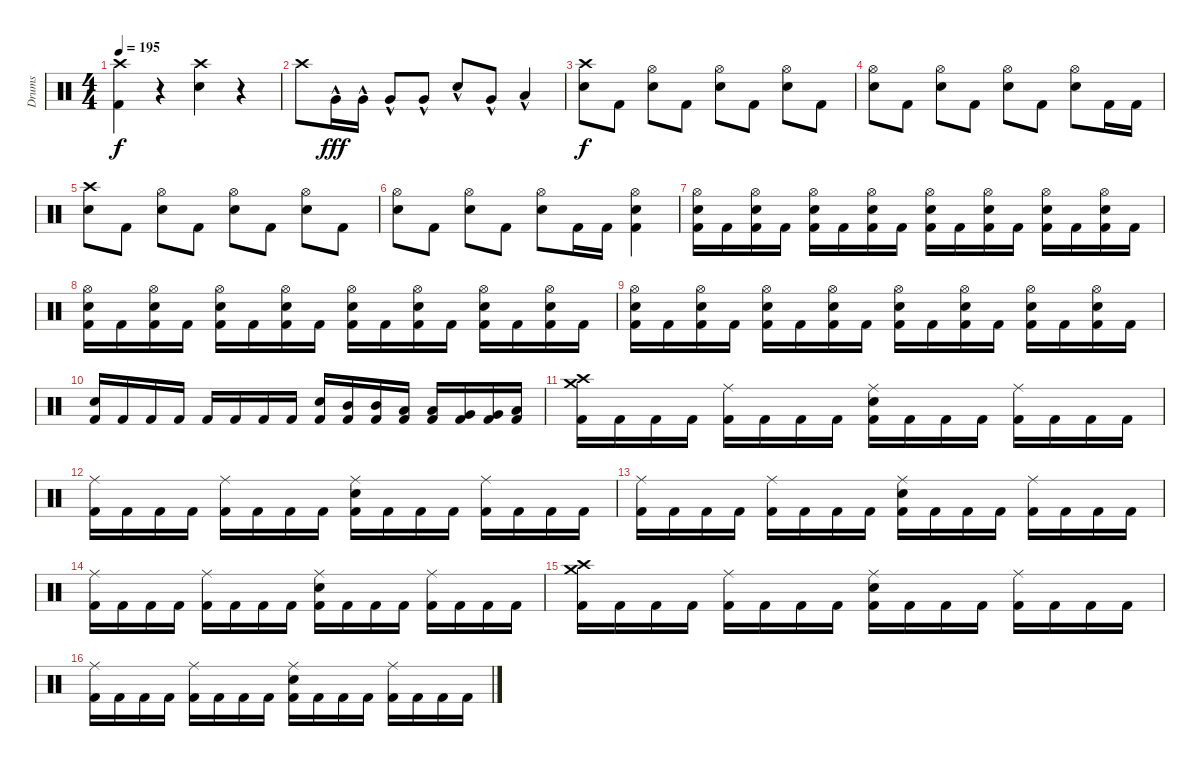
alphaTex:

\track ("Drums" "Drums") {instrument percussion}
\staff {score}
\articulation defaults
\ts (4 4)
\tempo 195
\clef neutral
\ks c
("Crash high (hit)" "Kick (hit) 2").4{dy f} r.4 ("Crash high (hit)" "Electric Snare (hit)").4 r.4 |
"Crash high (hit)".8 "Very Low Tom (hit)"{hac}.16{dy fff} "Very Low Tom (hit)"{hac}.16 "Very Low Tom (hit)"{hac}.8 "Very Low Tom (hit)"{hac}.8 "Electric Snare (hit)"{hac}.8 "Very Low Tom (hit)"{hac}.8 "Low Floor Tom (hit)"{hac}.4 |
("Crash high (hit)" "Electric Snare (hit)").8{dy f} "Kick (hit) 2".8 ("Hi-Hat (open)" "Electric Snare (hit)").8 "Kick (hit) 2".8 ("Hi-Hat (open)" "Electric Snare (hit)").8 "Kick (hit) 2".8 ("Hi-Hat (open)" "Electric Snare (hit)").8 "Kick (hit) 2".8 |
("Hi-Hat (open)" "Electric Snare (hit)").8 "Kick (hit) 2".8 ("Hi-Hat (open)" "Electric Snare (hit)").8 "Kick (hit) 2".8 ("Hi-Hat (open)" "Electric Snare (hit)").8 "Kick (hit) 2".8 ("Hi-Hat (open)" "Electric Snare (hit)").8 "Kick (hit) 2".16 "Kick (hit) 2".16 |
("Crash high (hit)" "Electric Snare (hit)").8 "Kick (hit) 2".8 ("Hi-Hat (open)" "Electric Snare (hit)").8 "Kick (hit) 2".8 ("Hi-Hat (open)" "Electric Snare (hit)").8 "Kick (hit) 2".8 ("Hi-Hat (open)" "Electric Snare (hit)").8 "Kick (hit) 2".8 |
("Hi-Hat (open)" "Electric Snare (hit)").8 "Kick (hit) 2".8 ("Hi-Hat (open)" "Electric Snare (hit)").8 "Kick (hit) 2".8 ("Hi-Hat (open)" "Electric Snare (hit)").8 "Kick (hit) 2".16 "Kick (hit) 2".16 ("Hi-Hat (open)" "Electric Snare (hit)" "Kick (hit) 2").4 |
("Hi-Hat (open)" "Kick (hit) 2" "Electric Snare (hit)").16 "Kick (hit) 2".16 ("Hi-Hat (open)" "Kick (hit) 2" "Electric Snare (hit)").16 "Kick (hit) 2".16 ("Hi-Hat (open)" "Kick (hit) 2" "Electric Snare (hit)").16 "Kick (hit) 2".16 ("Hi-Hat (open)" "Kick (hit) 2" "Electric Snare (hit)").16 "Kick (hit) 2".16 ("Hi-Hat (open)" "Kick (hit) 2" "Electric Snare (hit)").16 "Kick (hit) 2".16 ("Hi-Hat (open)" "Kick (hit) 2" "Electric Snare (hit)").16 "Kick (hit) 2".16 ("Hi-Hat (open)" "Kick (hit) 2" "Electric Snare (hit)").16 "Kick (hit) 2".16 ("Hi-Hat (open)" "Kick (hit) 2" "Electric Snare (hit)").16 "Kick (hit) 2".16 |
("Hi-Hat (open)" "Kick (hit) 2" "Electric Snare (hit)").16 "Kick (hit) 2".16 ("Hi-Hat (open)" "Kick (hit) 2" "Electric Snare (hit)").16 "Kick (hit) 2".16 ("Hi-Hat (open)" "Kick (hit) 2" "Electric Snare (hit)").16 "Kick (hit) 2".16 ("Hi-Hat (open)" "Kick (hit) 2" "Electric Snare (hit)").16 "Kick (hit) 2".16 ("Hi-Hat (open)" "Kick (hit) 2" "Electric Snare (hit)").16 "Kick (hit) 2".16 ("Hi-Hat (open)" "Kick (hit) 2" "Electric Snare (hit)").16 "Kick (hit) 2".16 ("Hi-Hat (open)" "Kick (hit) 2" "Electric Snare (hit)").16 "Kick (hit) 2".16 ("Hi-Hat (open)" "Kick (hit) 2" "Electric Snare (hit)").16 "Kick (hit) 2".16 |
("Hi-Hat (open)" "Kick (hit) 2" "Electric Snare (hit)").16 "Kick (hit) 2".16 ("Hi-Hat (open)" "Kick (hit) 2" "Electric Snare (hit)").16 "Kick (hit) 2".16 ("Hi-Hat (open)" "Kick (hit) 2" "Electric Snare (hit)").16 "Kick (hit) 2".16 ("Hi-Hat (open)" "Kick (hit) 2" "Electric Snare (hit)").16 "Kick (hit) 2".16 ("Hi-Hat (open)" "Kick (hit) 2" "Electric Snare (hit)").16 "Kick (hit) 2".16 ("Hi-Hat (open)" "Kick (hit) 2" "Electric Snare (hit)").16 "Kick (hit) 2".16 ("Hi-Hat (open)" "Kick (hit) 2" "Electric Snare (hit)").16 "Kick (hit) 2".16 ("Hi-Hat (open)" "Kick (hit) 2" "Electric Snare (hit)").16 "Kick (hit) 2".16 |
("Electric Snare (hit)" "Kick (hit) 2").16 "Kick (hit) 2".16 "Kick (hit) 2".16 "Kick (hit) 2".16 "Kick (hit) 2".16 "Kick (hit) 2".16 "Kick (hit) 2".16 "Kick (hit) 2".16 ("Electric Snare (hit)" "Kick (hit) 2").16 ("Mid Tom (hit)" "Kick (hit) 2").16 ("Mid Tom (hit)" "Kick (hit) 2").16 ("Low Tom (hit)" "Kick (hit) 2").16 ("Low Tom (hit)" "Kick (hit) 2").16 ("Very Low Tom (hit)" "Kick (hit) 2").16 ("Very Low Tom (hit)" "Kick (hit) 2").16 ("Low Floor Tom (hit)" "Kick (hit) 2").16 |
("Crash high (hit)" "Kick (hit) 2" "Crash medium (hit)").16 "Kick (hit) 2".16 "Kick (hit) 2".16 "Kick (hit) 2".16 ("Ride (middle)" "Kick (hit) 2").16 "Kick (hit) 2".16 "Kick (hit) 2".16 "Kick (hit) 2".16 ("Ride (middle)" "Kick (hit) 2" "Electric Snare (hit)").16 "Kick (hit) 2".16 "Kick (hit) 2".16 "Kick (hit) 2".16 ("Ride (middle)" "Kick (hit) 2").16 "Kick (hit) 2".16 "Kick (hit) 2".16 "Kick (hit) 2".16 |
("Ride (middle)" "Kick (hit) 2").16 "Kick (hit) 2".16 "Kick (hit) 2".16 "Kick (hit) 2".16 ("Ride (middle)" "Kick (hit) 2").16 "Kick (hit) 2".16 "Kick (hit) 2".16 "Kick (hit) 2".16 ("Ride (middle)" "Kick (hit) 2" "Electric Snare (hit)").16 "Kick (hit) 2".16 "Kick (hit) 2".16 "Kick (hit) 2".16 ("Ride (middle)" "Kick (hit) 2").16 "Kick (hit) 2".16 "Kick (hit) 2".16 "Kick (hit) 2".16 |
("Ride (middle)" "Kick (hit) 2").16 "Kick (hit) 2".16 "Kick (hit) 2".16 "Kick (hit) 2".16 ("Ride (middle)" "Kick (hit) 2").16 "Kick (hit) 2".16 "Kick (hit) 2".16 "Kick (hit) 2".16 ("Ride (middle)" "Kick (hit) 2" "Electric Snare (hit)").16 "Kick (hit) 2".16 "Kick (hit) 2".16 "Kick (hit) 2".16 ("Ride (middle)" "Kick (hit) 2").16 "Kick (hit) 2".16 "Kick (hit) 2".16 "Kick (hit) 2".16 |
("Ride (middle)" "Kick (hit) 2").16 "Kick (hit) 2".16 "Kick (hit) 2".16 "Kick (hit) 2".16 ("Ride (middle)" "Kick (hit) 2").16 "Kick (hit) 2".16 "Kick (hit) 2".16 "Kick (hit) 2".16 ("Ride (middle)" "Kick (hit) 2" "Electric Snare (hit)").16 "Kick (hit) 2".16 "Kick (hit) 2".16 "Kick (hit) 2".16 ("Ride (middle)" "Kick (hit) 2").16 "Kick (hit) 2".16 "Kick (hit) 2".16 "Kick (hit) 2".16 |
("Crash high (hit)" "Kick (hit) 2" "Crash medium (hit)").16 "Kick (hit) 2".16 "Kick (hit) 2".16 "Kick (hit) 2".16 ("Ride (middle)" "Kick (hit) 2").16 "Kick (hit) 2".16 "Kick (hit) 2".16 "Kick (hit) 2".16 ("Ride (middle)" "Kick (hit) 2" "Electric Snare (hit)").16 "Kick (hit) 2".16 "Kick (hit) 2".16 "Kick (hit) 2".16 ("Ride (middle)" "Kick (hit) 2").16 "Kick (hit) 2".16 "Kick (hit) 2".16 "Kick (hit) 2".16 |
("Ride (middle)" "Kick (hit) 2").16 "Kick (hit) 2".16 "Kick (hit) 2".16 "Kick (hit) 2".16 ("Ride (middle)" "Kick (hit) 2").16 "Kick (hit) 2".16 "Kick (hit) 2".16 "Kick (hit) 2".16 ("Ride (middle)" "Kick (hit) 2" "Electric Snare (hit)").16 "Kick (hit) 2".16 "Kick (hit) 2".16 "Kick (hit) 2".16 ("Ride (middle)" "Kick (hit) 2").16 "Kick (hit) 2".16 "Kick (hit) 2".16 "Kick (hit) 2".16
